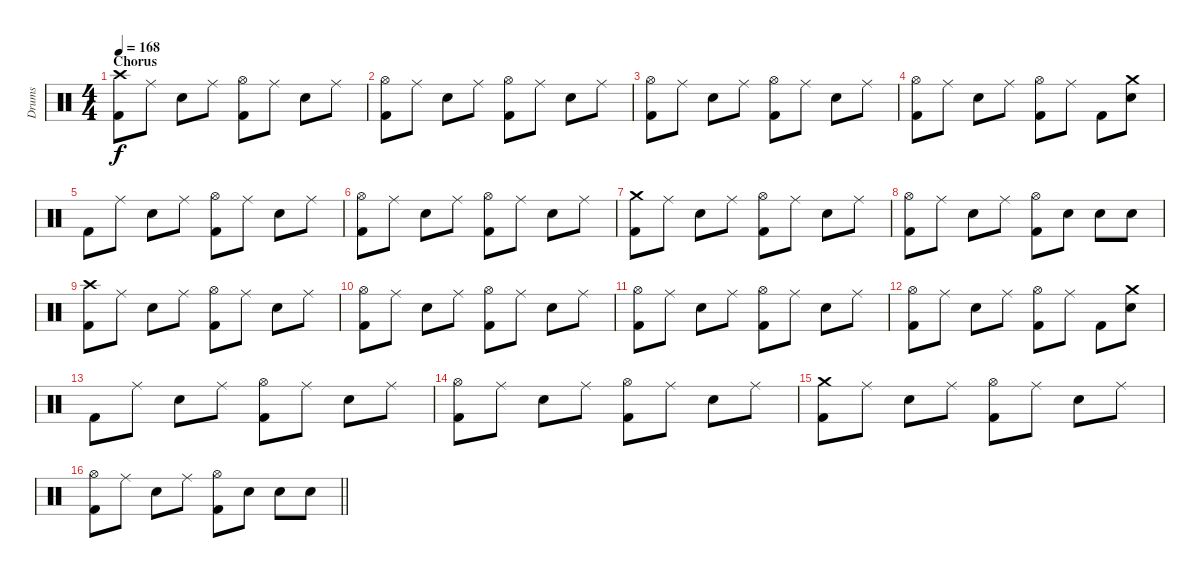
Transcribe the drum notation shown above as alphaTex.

\track ("Drums" "Drums") {instrument percussion}
\staff {score}
\articulation defaults
\ts (4 4)
\section ("" "Chorus")
\tempo 168
\clef neutral
\ks c
("Crash high (hit)" "Kick (hit) 2").8{dy f} "Ride (middle)".8 "Snare (hit) 2".8 "Ride (middle)".8 ("Hi-Hat (open)" "Kick (hit) 2").8 "Ride (middle)".8 "Snare (hit) 2".8 "Ride (middle)".8 |
("Hi-Hat (open)" "Kick (hit) 2").8 "Ride (middle)".8 "Snare (hit) 2".8 "Ride (middle)".8 ("Hi-Hat (open)" "Kick (hit) 2").8 "Ride (middle)".8 "Snare (hit) 2".8 "Ride (middle)".8 |
("Hi-Hat (open)" "Kick (hit) 2").8 "Ride (middle)".8 "Snare (hit) 2".8 "Ride (middle)".8 ("Hi-Hat (open)" "Kick (hit) 2").8 "Ride (middle)".8 "Snare (hit) 2".8 "Ride (middle)".8 |
("Hi-Hat (open)" "Kick (hit) 2").8 "Ride (middle)".8 "Snare (hit) 2".8 "Ride (middle)".8 ("Hi-Hat (open)" "Kick (hit) 2").8 "Ride (middle)".8 "Kick (hit) 2".8 ("Crash medium (hit)" "Snare (hit) 2").8 |
"Kick (hit) 2".8 "Ride (middle)".8 "Snare (hit) 2".8 "Ride (middle)".8 ("Hi-Hat (open)" "Kick (hit) 2").8 "Ride (middle)".8 "Snare (hit) 2".8 "Ride (middle)".8 |
("Hi-Hat (open)" "Kick (hit) 2").8 "Ride (middle)".8 "Snare (hit) 2".8 "Ride (middle)".8 ("Hi-Hat (open)" "Kick (hit) 2").8 "Ride (middle)".8 "Snare (hit) 2".8 "Ride (middle)".8 |
("Crash medium (hit)" "Kick (hit) 2").8 "Ride (middle)".8 "Snare (hit) 2".8 "Ride (middle)".8 ("Hi-Hat (open)" "Kick (hit) 2").8 "Ride (middle)".8 "Snare (hit) 2".8 "Ride (middle)".8 |
("Hi-Hat (open)" "Kick (hit) 2").8 "Ride (middle)".8 "Snare (hit) 2".8 "Ride (middle)".8 ("Hi-Hat (open)" "Kick (hit) 2").8 "Snare (hit) 2".8 "Snare (hit) 2".8 "Snare (hit) 2".8 |
("Crash high (hit)" "Kick (hit) 2").8 "Ride (middle)".8 "Snare (hit) 2".8 "Ride (middle)".8 ("Hi-Hat (open)" "Kick (hit) 2").8 "Ride (middle)".8 "Snare (hit) 2".8 "Ride (middle)".8 |
("Hi-Hat (open)" "Kick (hit) 2").8 "Ride (middle)".8 "Snare (hit) 2".8 "Ride (middle)".8 ("Hi-Hat (open)" "Kick (hit) 2").8 "Ride (middle)".8 "Snare (hit) 2".8 "Ride (middle)".8 |
("Hi-Hat (open)" "Kick (hit) 2").8 "Ride (middle)".8 "Snare (hit) 2".8 "Ride (middle)".8 ("Hi-Hat (open)" "Kick (hit) 2").8 "Ride (middle)".8 "Snare (hit) 2".8 "Ride (middle)".8 |
("Hi-Hat (open)" "Kick (hit) 2").8 "Ride (middle)".8 "Snare (hit) 2".8 "Ride (middle)".8 ("Hi-Hat (open)" "Kick (hit) 2").8 "Ride (middle)".8 "Kick (hit) 2".8 ("Crash medium (hit)" "Snare (hit) 2").8 |
"Kick (hit) 2".8 "Ride (middle)".8 "Snare (hit) 2".8 "Ride (middle)".8 ("Hi-Hat (open)" "Kick (hit) 2").8 "Ride (middle)".8 "Snare (hit) 2".8 "Ride (middle)".8 |
("Hi-Hat (open)" "Kick (hit) 2").8 "Ride (middle)".8 "Snare (hit) 2".8 "Ride (middle)".8 ("Hi-Hat (open)" "Kick (hit) 2").8 "Ride (middle)".8 "Snare (hit) 2".8 "Ride (middle)".8 |
("Crash medium (hit)" "Kick (hit) 2").8 "Ride (middle)".8 "Snare (hit) 2".8 "Ride (middle)".8 ("Hi-Hat (open)" "Kick (hit) 2").8 "Ride (middle)".8 "Snare (hit) 2".8 "Ride (middle)".8 |
\barLineRight lightlight
("Hi-Hat (open)" "Kick (hit) 2").8 "Ride (middle)".8 "Snare (hit) 2".8 "Ride (middle)".8 ("Hi-Hat (open)" "Kick (hit) 2").8 "Snare (hit) 2".8 "Snare (hit) 2".8 "Snare (hit) 2".8
